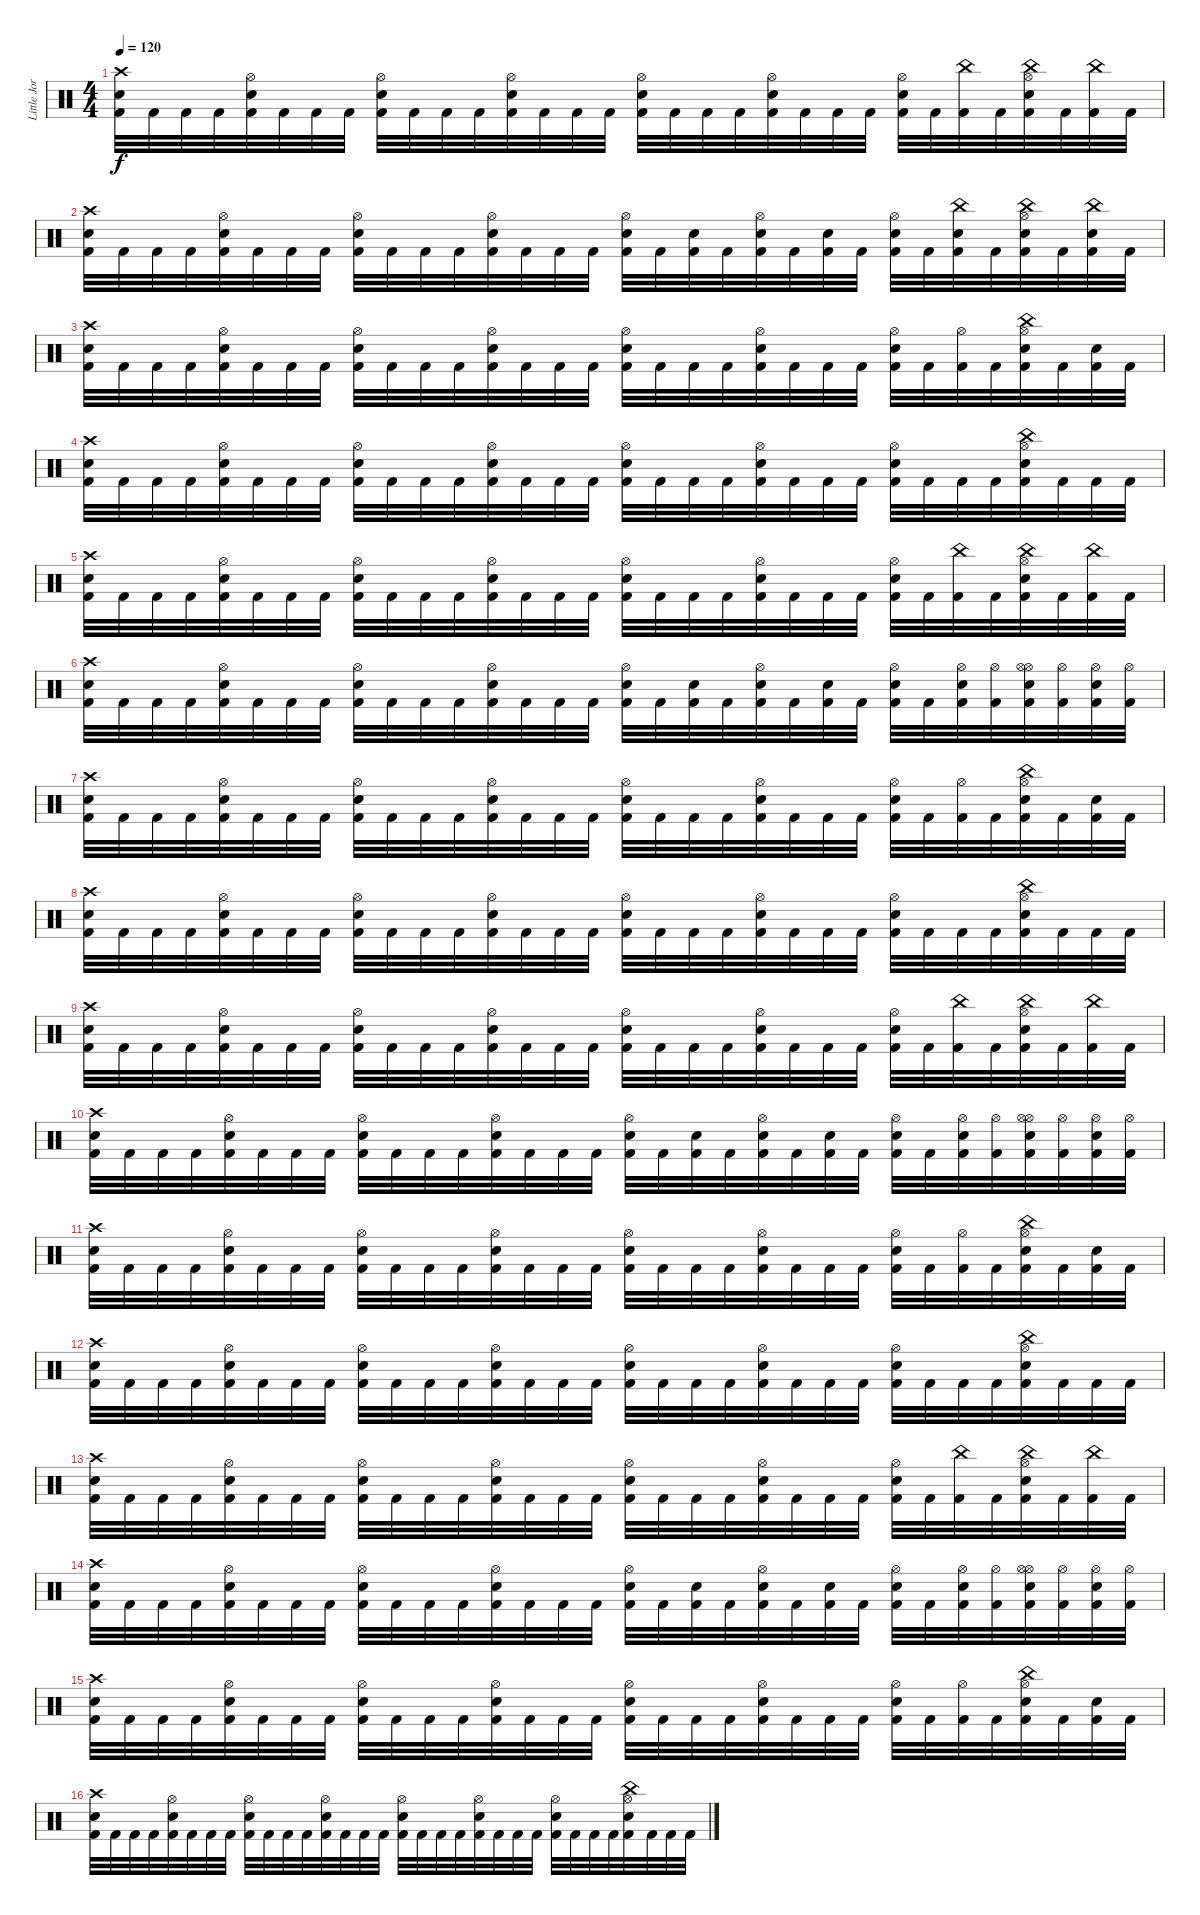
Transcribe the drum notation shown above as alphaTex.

\track ("Little Jordison" "Little Jor") {instrument percussion}
\staff {score}
\articulation defaults
\ts (4 4)
\tempo 120
\clef neutral
\ks c
("Crash high (hit)" "Electric Snare (hit)" "Kick (hit) 2").32{dy f} "Kick (hit) 2".32 "Kick (hit) 2".32 "Kick (hit) 2".32 ("Hi-Hat (open)" "Electric Snare (hit)" "Kick (hit) 2").32 "Kick (hit) 2".32 "Kick (hit) 2".32 "Kick (hit) 2".32 ("Hi-Hat (open)" "Electric Snare (hit)" "Kick (hit) 2").32 "Kick (hit) 2".32 "Kick (hit) 2".32 "Kick (hit) 2".32 ("Hi-Hat (open)" "Electric Snare (hit)" "Kick (hit) 2").32 "Kick (hit) 2".32 "Kick (hit) 2".32 "Kick (hit) 2".32 ("Hi-Hat (open)" "Electric Snare (hit)" "Kick (hit) 2").32 "Kick (hit) 2".32 "Kick (hit) 2".32 "Kick (hit) 2".32 ("Hi-Hat (open)" "Electric Snare (hit)" "Kick (hit) 2").32 "Kick (hit) 2".32 "Kick (hit) 2".32 "Kick (hit) 2".32 ("Hi-Hat (open)" "Electric Snare (hit)" "Kick (hit) 2").32 "Kick (hit) 2".32 ("China (hit)" "Kick (hit) 2").32 "Kick (hit) 2".32 ("China (hit)" "Hi-Hat (open)" "Electric Snare (hit)" "Kick (hit) 2").32 "Kick (hit) 2".32 ("China (hit)" "Kick (hit) 2").32 "Kick (hit) 2".32 |
("Crash high (hit)" "Electric Snare (hit)" "Kick (hit) 2").32 "Kick (hit) 2".32 "Kick (hit) 2".32 "Kick (hit) 2".32 ("Hi-Hat (open)" "Electric Snare (hit)" "Kick (hit) 2").32 "Kick (hit) 2".32 "Kick (hit) 2".32 "Kick (hit) 2".32 ("Hi-Hat (open)" "Electric Snare (hit)" "Kick (hit) 2").32 "Kick (hit) 2".32 "Kick (hit) 2".32 "Kick (hit) 2".32 ("Hi-Hat (open)" "Electric Snare (hit)" "Kick (hit) 2").32 "Kick (hit) 2".32 "Kick (hit) 2".32 "Kick (hit) 2".32 ("Hi-Hat (open)" "Electric Snare (hit)" "Kick (hit) 2").32 "Kick (hit) 2".32 ("Electric Snare (hit)" "Kick (hit) 2").32 "Kick (hit) 2".32 ("Hi-Hat (open)" "Electric Snare (hit)" "Kick (hit) 2").32 "Kick (hit) 2".32 ("Electric Snare (hit)" "Kick (hit) 2").32 "Kick (hit) 2".32 ("Hi-Hat (open)" "Electric Snare (hit)" "Kick (hit) 2").32 "Kick (hit) 2".32 ("China (hit)" "Electric Snare (hit)" "Kick (hit) 2").32 "Kick (hit) 2".32 ("China (hit)" "Hi-Hat (open)" "Electric Snare (hit)" "Kick (hit) 2").32 "Kick (hit) 2".32 ("China (hit)" "Electric Snare (hit)" "Kick (hit) 2").32 "Kick (hit) 2".32 |
("Crash high (hit)" "Electric Snare (hit)" "Kick (hit) 2").32 "Kick (hit) 2".32 "Kick (hit) 2".32 "Kick (hit) 2".32 ("Hi-Hat (open)" "Electric Snare (hit)" "Kick (hit) 2").32 "Kick (hit) 2".32 "Kick (hit) 2".32 "Kick (hit) 2".32 ("Hi-Hat (open)" "Electric Snare (hit)" "Kick (hit) 2").32 "Kick (hit) 2".32 "Kick (hit) 2".32 "Kick (hit) 2".32 ("Hi-Hat (open)" "Electric Snare (hit)" "Kick (hit) 2").32 "Kick (hit) 2".32 "Kick (hit) 2".32 "Kick (hit) 2".32 ("Hi-Hat (open)" "Electric Snare (hit)" "Kick (hit) 2").32 "Kick (hit) 2".32 "Kick (hit) 2".32 "Kick (hit) 2".32 ("Hi-Hat (open)" "Electric Snare (hit)" "Kick (hit) 2").32 "Kick (hit) 2".32 "Kick (hit) 2".32 "Kick (hit) 2".32 ("Hi-Hat (open)" "Electric Snare (hit)" "Kick (hit) 2").32 "Kick (hit) 2".32 ("Hi-Hat (open)" "Kick (hit) 2").32 "Kick (hit) 2".32 ("China (hit)" "Hi-Hat (open)" "Electric Snare (hit)" "Kick (hit) 2").32 "Kick (hit) 2".32 ("Snare (hit)" "Kick (hit) 2").32 "Kick (hit) 2".32 |
("Crash high (hit)" "Electric Snare (hit)" "Kick (hit) 2").32 "Kick (hit) 2".32 "Kick (hit) 2".32 "Kick (hit) 2".32 ("Hi-Hat (open)" "Electric Snare (hit)" "Kick (hit) 2").32 "Kick (hit) 2".32 "Kick (hit) 2".32 "Kick (hit) 2".32 ("Hi-Hat (open)" "Electric Snare (hit)" "Kick (hit) 2").32 "Kick (hit) 2".32 "Kick (hit) 2".32 "Kick (hit) 2".32 ("Hi-Hat (open)" "Electric Snare (hit)" "Kick (hit) 2").32 "Kick (hit) 2".32 "Kick (hit) 2".32 "Kick (hit) 2".32 ("Hi-Hat (open)" "Electric Snare (hit)" "Kick (hit) 2").32 "Kick (hit) 2".32 "Kick (hit) 2".32 "Kick (hit) 2".32 ("Hi-Hat (open)" "Electric Snare (hit)" "Kick (hit) 2").32 "Kick (hit) 2".32 "Kick (hit) 2".32 "Kick (hit) 2".32 ("Hi-Hat (open)" "Electric Snare (hit)" "Kick (hit) 2").32 "Kick (hit) 2".32 "Kick (hit) 2".32 "Kick (hit) 2".32 ("China (hit)" "Hi-Hat (open)" "Electric Snare (hit)" "Kick (hit) 2").32 "Kick (hit) 2".32 "Kick (hit) 2".32 "Kick (hit) 2".32 |
("Crash high (hit)" "Electric Snare (hit)" "Kick (hit) 2").32 "Kick (hit) 2".32 "Kick (hit) 2".32 "Kick (hit) 2".32 ("Hi-Hat (open)" "Electric Snare (hit)" "Kick (hit) 2").32 "Kick (hit) 2".32 "Kick (hit) 2".32 "Kick (hit) 2".32 ("Hi-Hat (open)" "Electric Snare (hit)" "Kick (hit) 2").32 "Kick (hit) 2".32 "Kick (hit) 2".32 "Kick (hit) 2".32 ("Hi-Hat (open)" "Electric Snare (hit)" "Kick (hit) 2").32 "Kick (hit) 2".32 "Kick (hit) 2".32 "Kick (hit) 2".32 ("Hi-Hat (open)" "Electric Snare (hit)" "Kick (hit) 2").32 "Kick (hit) 2".32 "Kick (hit) 2".32 "Kick (hit) 2".32 ("Hi-Hat (open)" "Electric Snare (hit)" "Kick (hit) 2").32 "Kick (hit) 2".32 "Kick (hit) 2".32 "Kick (hit) 2".32 ("Hi-Hat (open)" "Electric Snare (hit)" "Kick (hit) 2").32 "Kick (hit) 2".32 ("China (hit)" "Kick (hit) 2").32 "Kick (hit) 2".32 ("China (hit)" "Hi-Hat (open)" "Electric Snare (hit)" "Kick (hit) 2").32 "Kick (hit) 2".32 ("China (hit)" "Kick (hit) 2").32 "Kick (hit) 2".32 |
("Crash high (hit)" "Electric Snare (hit)" "Kick (hit) 2").32 "Kick (hit) 2".32 "Kick (hit) 2".32 "Kick (hit) 2".32 ("Hi-Hat (open)" "Electric Snare (hit)" "Kick (hit) 2").32 "Kick (hit) 2".32 "Kick (hit) 2".32 "Kick (hit) 2".32 ("Hi-Hat (open)" "Electric Snare (hit)" "Kick (hit) 2").32 "Kick (hit) 2".32 "Kick (hit) 2".32 "Kick (hit) 2".32 ("Hi-Hat (open)" "Electric Snare (hit)" "Kick (hit) 2").32 "Kick (hit) 2".32 "Kick (hit) 2".32 "Kick (hit) 2".32 ("Hi-Hat (open)" "Electric Snare (hit)" "Kick (hit) 2").32 "Kick (hit) 2".32 ("Electric Snare (hit)" "Kick (hit) 2").32 "Kick (hit) 2".32 ("Hi-Hat (open)" "Electric Snare (hit)" "Kick (hit) 2").32 "Kick (hit) 2".32 ("Electric Snare (hit)" "Kick (hit) 2").32 "Kick (hit) 2".32 ("Hi-Hat (open)" "Electric Snare (hit)" "Kick (hit) 2").32 "Kick (hit) 2".32 ("Hi-Hat (open)" "Electric Snare (hit)" "Kick (hit) 2").32 ("Hi-Hat (open)" "Kick (hit) 2").32 ("Hi-Hat (open)" "Hi-Hat (open)" "Electric Snare (hit)" "Kick (hit) 2").32 ("Hi-Hat (open)" "Kick (hit) 2").32 ("Hi-Hat (open)" "Electric Snare (hit)" "Kick (hit) 2").32 ("Hi-Hat (open)" "Kick (hit) 2").32 |
("Crash high (hit)" "Electric Snare (hit)" "Kick (hit) 2").32 "Kick (hit) 2".32 "Kick (hit) 2".32 "Kick (hit) 2".32 ("Hi-Hat (open)" "Electric Snare (hit)" "Kick (hit) 2").32 "Kick (hit) 2".32 "Kick (hit) 2".32 "Kick (hit) 2".32 ("Hi-Hat (open)" "Electric Snare (hit)" "Kick (hit) 2").32 "Kick (hit) 2".32 "Kick (hit) 2".32 "Kick (hit) 2".32 ("Hi-Hat (open)" "Electric Snare (hit)" "Kick (hit) 2").32 "Kick (hit) 2".32 "Kick (hit) 2".32 "Kick (hit) 2".32 ("Hi-Hat (open)" "Electric Snare (hit)" "Kick (hit) 2").32 "Kick (hit) 2".32 "Kick (hit) 2".32 "Kick (hit) 2".32 ("Hi-Hat (open)" "Electric Snare (hit)" "Kick (hit) 2").32 "Kick (hit) 2".32 "Kick (hit) 2".32 "Kick (hit) 2".32 ("Hi-Hat (open)" "Electric Snare (hit)" "Kick (hit) 2").32 "Kick (hit) 2".32 ("Hi-Hat (open)" "Kick (hit) 2").32 "Kick (hit) 2".32 ("China (hit)" "Hi-Hat (open)" "Electric Snare (hit)" "Kick (hit) 2").32 "Kick (hit) 2".32 ("Snare (hit)" "Kick (hit) 2").32 "Kick (hit) 2".32 |
("Crash high (hit)" "Electric Snare (hit)" "Kick (hit) 2").32 "Kick (hit) 2".32 "Kick (hit) 2".32 "Kick (hit) 2".32 ("Hi-Hat (open)" "Electric Snare (hit)" "Kick (hit) 2").32 "Kick (hit) 2".32 "Kick (hit) 2".32 "Kick (hit) 2".32 ("Hi-Hat (open)" "Electric Snare (hit)" "Kick (hit) 2").32 "Kick (hit) 2".32 "Kick (hit) 2".32 "Kick (hit) 2".32 ("Hi-Hat (open)" "Electric Snare (hit)" "Kick (hit) 2").32 "Kick (hit) 2".32 "Kick (hit) 2".32 "Kick (hit) 2".32 ("Hi-Hat (open)" "Electric Snare (hit)" "Kick (hit) 2").32 "Kick (hit) 2".32 "Kick (hit) 2".32 "Kick (hit) 2".32 ("Hi-Hat (open)" "Electric Snare (hit)" "Kick (hit) 2").32 "Kick (hit) 2".32 "Kick (hit) 2".32 "Kick (hit) 2".32 ("Hi-Hat (open)" "Electric Snare (hit)" "Kick (hit) 2").32 "Kick (hit) 2".32 "Kick (hit) 2".32 "Kick (hit) 2".32 ("China (hit)" "Hi-Hat (open)" "Electric Snare (hit)" "Kick (hit) 2").32 "Kick (hit) 2".32 "Kick (hit) 2".32 "Kick (hit) 2".32 |
("Crash high (hit)" "Electric Snare (hit)" "Kick (hit) 2").32 "Kick (hit) 2".32 "Kick (hit) 2".32 "Kick (hit) 2".32 ("Hi-Hat (open)" "Electric Snare (hit)" "Kick (hit) 2").32 "Kick (hit) 2".32 "Kick (hit) 2".32 "Kick (hit) 2".32 ("Hi-Hat (open)" "Electric Snare (hit)" "Kick (hit) 2").32 "Kick (hit) 2".32 "Kick (hit) 2".32 "Kick (hit) 2".32 ("Hi-Hat (open)" "Electric Snare (hit)" "Kick (hit) 2").32 "Kick (hit) 2".32 "Kick (hit) 2".32 "Kick (hit) 2".32 ("Hi-Hat (open)" "Electric Snare (hit)" "Kick (hit) 2").32 "Kick (hit) 2".32 "Kick (hit) 2".32 "Kick (hit) 2".32 ("Hi-Hat (open)" "Electric Snare (hit)" "Kick (hit) 2").32 "Kick (hit) 2".32 "Kick (hit) 2".32 "Kick (hit) 2".32 ("Hi-Hat (open)" "Electric Snare (hit)" "Kick (hit) 2").32 "Kick (hit) 2".32 ("China (hit)" "Kick (hit) 2").32 "Kick (hit) 2".32 ("China (hit)" "Hi-Hat (open)" "Electric Snare (hit)" "Kick (hit) 2").32 "Kick (hit) 2".32 ("China (hit)" "Kick (hit) 2").32 "Kick (hit) 2".32 |
("Crash high (hit)" "Electric Snare (hit)" "Kick (hit) 2").32 "Kick (hit) 2".32 "Kick (hit) 2".32 "Kick (hit) 2".32 ("Hi-Hat (open)" "Electric Snare (hit)" "Kick (hit) 2").32 "Kick (hit) 2".32 "Kick (hit) 2".32 "Kick (hit) 2".32 ("Hi-Hat (open)" "Electric Snare (hit)" "Kick (hit) 2").32 "Kick (hit) 2".32 "Kick (hit) 2".32 "Kick (hit) 2".32 ("Hi-Hat (open)" "Electric Snare (hit)" "Kick (hit) 2").32 "Kick (hit) 2".32 "Kick (hit) 2".32 "Kick (hit) 2".32 ("Hi-Hat (open)" "Electric Snare (hit)" "Kick (hit) 2").32 "Kick (hit) 2".32 ("Electric Snare (hit)" "Kick (hit) 2").32 "Kick (hit) 2".32 ("Hi-Hat (open)" "Electric Snare (hit)" "Kick (hit) 2").32 "Kick (hit) 2".32 ("Electric Snare (hit)" "Kick (hit) 2").32 "Kick (hit) 2".32 ("Hi-Hat (open)" "Electric Snare (hit)" "Kick (hit) 2").32 "Kick (hit) 2".32 ("Hi-Hat (open)" "Electric Snare (hit)" "Kick (hit) 2").32 ("Hi-Hat (open)" "Kick (hit) 2").32 ("Hi-Hat (open)" "Hi-Hat (open)" "Electric Snare (hit)" "Kick (hit) 2").32 ("Hi-Hat (open)" "Kick (hit) 2").32 ("Hi-Hat (open)" "Electric Snare (hit)" "Kick (hit) 2").32 ("Hi-Hat (open)" "Kick (hit) 2").32 |
("Crash high (hit)" "Electric Snare (hit)" "Kick (hit) 2").32 "Kick (hit) 2".32 "Kick (hit) 2".32 "Kick (hit) 2".32 ("Hi-Hat (open)" "Electric Snare (hit)" "Kick (hit) 2").32 "Kick (hit) 2".32 "Kick (hit) 2".32 "Kick (hit) 2".32 ("Hi-Hat (open)" "Electric Snare (hit)" "Kick (hit) 2").32 "Kick (hit) 2".32 "Kick (hit) 2".32 "Kick (hit) 2".32 ("Hi-Hat (open)" "Electric Snare (hit)" "Kick (hit) 2").32 "Kick (hit) 2".32 "Kick (hit) 2".32 "Kick (hit) 2".32 ("Hi-Hat (open)" "Electric Snare (hit)" "Kick (hit) 2").32 "Kick (hit) 2".32 "Kick (hit) 2".32 "Kick (hit) 2".32 ("Hi-Hat (open)" "Electric Snare (hit)" "Kick (hit) 2").32 "Kick (hit) 2".32 "Kick (hit) 2".32 "Kick (hit) 2".32 ("Hi-Hat (open)" "Electric Snare (hit)" "Kick (hit) 2").32 "Kick (hit) 2".32 ("Hi-Hat (open)" "Kick (hit) 2").32 "Kick (hit) 2".32 ("China (hit)" "Hi-Hat (open)" "Electric Snare (hit)" "Kick (hit) 2").32 "Kick (hit) 2".32 ("Snare (hit)" "Kick (hit) 2").32 "Kick (hit) 2".32 |
("Crash high (hit)" "Electric Snare (hit)" "Kick (hit) 2").32 "Kick (hit) 2".32 "Kick (hit) 2".32 "Kick (hit) 2".32 ("Hi-Hat (open)" "Electric Snare (hit)" "Kick (hit) 2").32 "Kick (hit) 2".32 "Kick (hit) 2".32 "Kick (hit) 2".32 ("Hi-Hat (open)" "Electric Snare (hit)" "Kick (hit) 2").32 "Kick (hit) 2".32 "Kick (hit) 2".32 "Kick (hit) 2".32 ("Hi-Hat (open)" "Electric Snare (hit)" "Kick (hit) 2").32 "Kick (hit) 2".32 "Kick (hit) 2".32 "Kick (hit) 2".32 ("Hi-Hat (open)" "Electric Snare (hit)" "Kick (hit) 2").32 "Kick (hit) 2".32 "Kick (hit) 2".32 "Kick (hit) 2".32 ("Hi-Hat (open)" "Electric Snare (hit)" "Kick (hit) 2").32 "Kick (hit) 2".32 "Kick (hit) 2".32 "Kick (hit) 2".32 ("Hi-Hat (open)" "Electric Snare (hit)" "Kick (hit) 2").32 "Kick (hit) 2".32 "Kick (hit) 2".32 "Kick (hit) 2".32 ("China (hit)" "Hi-Hat (open)" "Electric Snare (hit)" "Kick (hit) 2").32 "Kick (hit) 2".32 "Kick (hit) 2".32 "Kick (hit) 2".32 |
("Crash high (hit)" "Electric Snare (hit)" "Kick (hit) 2").32 "Kick (hit) 2".32 "Kick (hit) 2".32 "Kick (hit) 2".32 ("Hi-Hat (open)" "Electric Snare (hit)" "Kick (hit) 2").32 "Kick (hit) 2".32 "Kick (hit) 2".32 "Kick (hit) 2".32 ("Hi-Hat (open)" "Electric Snare (hit)" "Kick (hit) 2").32 "Kick (hit) 2".32 "Kick (hit) 2".32 "Kick (hit) 2".32 ("Hi-Hat (open)" "Electric Snare (hit)" "Kick (hit) 2").32 "Kick (hit) 2".32 "Kick (hit) 2".32 "Kick (hit) 2".32 ("Hi-Hat (open)" "Electric Snare (hit)" "Kick (hit) 2").32 "Kick (hit) 2".32 "Kick (hit) 2".32 "Kick (hit) 2".32 ("Hi-Hat (open)" "Electric Snare (hit)" "Kick (hit) 2").32 "Kick (hit) 2".32 "Kick (hit) 2".32 "Kick (hit) 2".32 ("Hi-Hat (open)" "Electric Snare (hit)" "Kick (hit) 2").32 "Kick (hit) 2".32 ("China (hit)" "Kick (hit) 2").32 "Kick (hit) 2".32 ("China (hit)" "Hi-Hat (open)" "Electric Snare (hit)" "Kick (hit) 2").32 "Kick (hit) 2".32 ("China (hit)" "Kick (hit) 2").32 "Kick (hit) 2".32 |
("Crash high (hit)" "Electric Snare (hit)" "Kick (hit) 2").32 "Kick (hit) 2".32 "Kick (hit) 2".32 "Kick (hit) 2".32 ("Hi-Hat (open)" "Electric Snare (hit)" "Kick (hit) 2").32 "Kick (hit) 2".32 "Kick (hit) 2".32 "Kick (hit) 2".32 ("Hi-Hat (open)" "Electric Snare (hit)" "Kick (hit) 2").32 "Kick (hit) 2".32 "Kick (hit) 2".32 "Kick (hit) 2".32 ("Hi-Hat (open)" "Electric Snare (hit)" "Kick (hit) 2").32 "Kick (hit) 2".32 "Kick (hit) 2".32 "Kick (hit) 2".32 ("Hi-Hat (open)" "Electric Snare (hit)" "Kick (hit) 2").32 "Kick (hit) 2".32 ("Electric Snare (hit)" "Kick (hit) 2").32 "Kick (hit) 2".32 ("Hi-Hat (open)" "Electric Snare (hit)" "Kick (hit) 2").32 "Kick (hit) 2".32 ("Electric Snare (hit)" "Kick (hit) 2").32 "Kick (hit) 2".32 ("Hi-Hat (open)" "Electric Snare (hit)" "Kick (hit) 2").32 "Kick (hit) 2".32 ("Hi-Hat (open)" "Electric Snare (hit)" "Kick (hit) 2").32 ("Hi-Hat (open)" "Kick (hit) 2").32 ("Hi-Hat (open)" "Hi-Hat (open)" "Electric Snare (hit)" "Kick (hit) 2").32 ("Hi-Hat (open)" "Kick (hit) 2").32 ("Hi-Hat (open)" "Electric Snare (hit)" "Kick (hit) 2").32 ("Hi-Hat (open)" "Kick (hit) 2").32 |
("Crash high (hit)" "Electric Snare (hit)" "Kick (hit) 2").32 "Kick (hit) 2".32 "Kick (hit) 2".32 "Kick (hit) 2".32 ("Hi-Hat (open)" "Electric Snare (hit)" "Kick (hit) 2").32 "Kick (hit) 2".32 "Kick (hit) 2".32 "Kick (hit) 2".32 ("Hi-Hat (open)" "Electric Snare (hit)" "Kick (hit) 2").32 "Kick (hit) 2".32 "Kick (hit) 2".32 "Kick (hit) 2".32 ("Hi-Hat (open)" "Electric Snare (hit)" "Kick (hit) 2").32 "Kick (hit) 2".32 "Kick (hit) 2".32 "Kick (hit) 2".32 ("Hi-Hat (open)" "Electric Snare (hit)" "Kick (hit) 2").32 "Kick (hit) 2".32 "Kick (hit) 2".32 "Kick (hit) 2".32 ("Hi-Hat (open)" "Electric Snare (hit)" "Kick (hit) 2").32 "Kick (hit) 2".32 "Kick (hit) 2".32 "Kick (hit) 2".32 ("Hi-Hat (open)" "Electric Snare (hit)" "Kick (hit) 2").32 "Kick (hit) 2".32 ("Hi-Hat (open)" "Kick (hit) 2").32 "Kick (hit) 2".32 ("China (hit)" "Hi-Hat (open)" "Electric Snare (hit)" "Kick (hit) 2").32 "Kick (hit) 2".32 ("Snare (hit)" "Kick (hit) 2").32 "Kick (hit) 2".32 |
("Crash high (hit)" "Electric Snare (hit)" "Kick (hit) 2").32 "Kick (hit) 2".32 "Kick (hit) 2".32 "Kick (hit) 2".32 ("Hi-Hat (open)" "Electric Snare (hit)" "Kick (hit) 2").32 "Kick (hit) 2".32 "Kick (hit) 2".32 "Kick (hit) 2".32 ("Hi-Hat (open)" "Electric Snare (hit)" "Kick (hit) 2").32 "Kick (hit) 2".32 "Kick (hit) 2".32 "Kick (hit) 2".32 ("Hi-Hat (open)" "Electric Snare (hit)" "Kick (hit) 2").32 "Kick (hit) 2".32 "Kick (hit) 2".32 "Kick (hit) 2".32 ("Hi-Hat (open)" "Electric Snare (hit)" "Kick (hit) 2").32 "Kick (hit) 2".32 "Kick (hit) 2".32 "Kick (hit) 2".32 ("Hi-Hat (open)" "Electric Snare (hit)" "Kick (hit) 2").32 "Kick (hit) 2".32 "Kick (hit) 2".32 "Kick (hit) 2".32 ("Hi-Hat (open)" "Electric Snare (hit)" "Kick (hit) 2").32 "Kick (hit) 2".32 "Kick (hit) 2".32 "Kick (hit) 2".32 ("China (hit)" "Hi-Hat (open)" "Electric Snare (hit)" "Kick (hit) 2").32 "Kick (hit) 2".32 "Kick (hit) 2".32 "Kick (hit) 2".32
